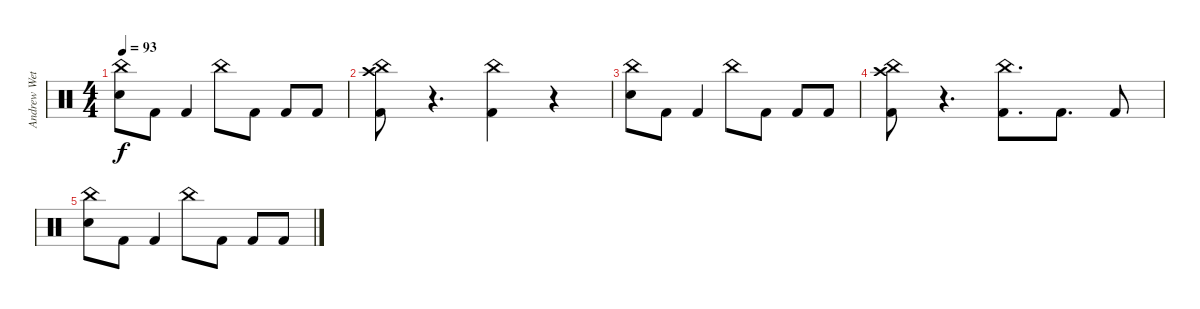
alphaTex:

\track ("Andrew Wetzel" "Andrew Wet") {instrument percussion}
\staff {score}
\articulation defaults
\ts (4 4)
\tempo 93
\clef neutral
\ks c
("China (hit)" "Snare (hit) 2").8{dy f} "Kick (hit) 2".8 "Kick (hit) 2".4 "China (hit)".8 "Kick (hit) 2".8 "Kick (hit) 2".8 "Kick (hit) 2".8 |
("China (hit)" "Crash high (hit)" "Kick (hit) 2").8 r.4{d volume 0} ("China (hit)" "Kick (hit) 2").4{volume 13} r.4 |
("China (hit)" "Snare (hit) 2").8 "Kick (hit) 2".8 "Kick (hit) 2".4 "China (hit)".8 "Kick (hit) 2".8 "Kick (hit) 2".8 "Kick (hit) 2".8 |
("China (hit)" "Crash high (hit)" "Kick (hit) 2").8 r.4{d volume 0} ("China (hit)" "Kick (hit) 2").8{d volume 13} "Kick (hit) 2".8{d} "Kick (hit) 2".8 |
("China (hit)" "Snare (hit) 2").8 "Kick (hit) 2".8 "Kick (hit) 2".4 "China (hit)".8 "Kick (hit) 2".8 "Kick (hit) 2".8 "Kick (hit) 2".8
